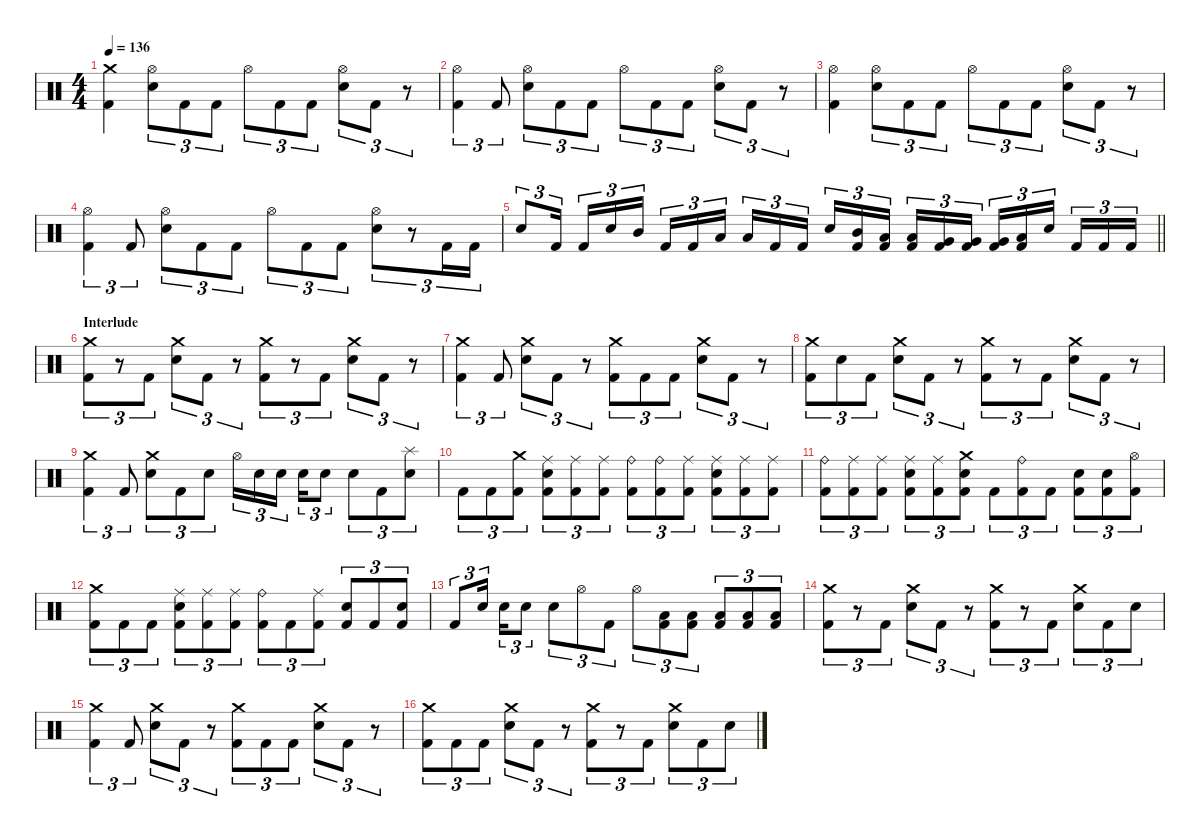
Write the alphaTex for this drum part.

\defaultSystemsLayout 4
\hideDynamics
\bracketExtendMode nobrackets
\singleTrackTrackNamePolicy hidden
\multiTrackTrackNamePolicy hidden
\firstSystemTrackNameMode fullname
\firstSystemTrackNameOrientation horizontal
\otherSystemsTrackNameOrientation horizontal
\track ("Drums" "drm.") {instrument percussion}
\staff {score}
\articulation defaults
\ts (4 4)
\tempo 136
\clef neutral
\ks c
("Crash medium (hit)" "Kick (hit) 2").4{dy f beam Down} ("Hi-Hat (open)" "Snare (hit) 2").8{tu (3 2) beam Down} "Kick (hit) 2".8{tu (3 2) beam Down} "Kick (hit) 2".8{tu (3 2) beam Down} "Hi-Hat (open)".8{tu (3 2) beam Down} "Kick (hit) 2".8{tu (3 2) beam Down} "Kick (hit) 2".8{tu (3 2) beam Down} ("Hi-Hat (open)" "Snare (hit) 2").8{tu (3 2) beam Down} "Kick (hit) 2".8{tu (3 2) beam Down} r.8{tu (3 2) beam Down} |
("Hi-Hat (open)" "Kick (hit) 2").4{tu (3 2) beam Down} "Kick (hit) 2".8{tu (3 2) beam Up} ("Hi-Hat (open)" "Snare (hit) 2").8{tu (3 2) beam Down} "Kick (hit) 2".8{tu (3 2) beam Down} "Kick (hit) 2".8{tu (3 2) beam Down} "Hi-Hat (open)".8{tu (3 2) beam Down} "Kick (hit) 2".8{tu (3 2) beam Down} "Kick (hit) 2".8{tu (3 2) beam Down} ("Hi-Hat (open)" "Snare (hit) 2").8{tu (3 2) beam Down} "Kick (hit) 2".8{tu (3 2) beam Down} r.8{tu (3 2) beam Down} |
("Hi-Hat (open)" "Kick (hit) 2").4{beam Down} ("Hi-Hat (open)" "Snare (hit) 2").8{tu (3 2) beam Down} "Kick (hit) 2".8{tu (3 2) beam Down} "Kick (hit) 2".8{tu (3 2) beam Down} "Hi-Hat (open)".8{tu (3 2) beam Down} "Kick (hit) 2".8{tu (3 2) beam Down} "Kick (hit) 2".8{tu (3 2) beam Down} ("Hi-Hat (open)" "Snare (hit) 2").8{tu (3 2) beam Down} "Kick (hit) 2".8{tu (3 2) beam Down} r.8{tu (3 2) beam Down} |
("Hi-Hat (open)" "Kick (hit) 2").4{tu (3 2) beam Down} "Kick (hit) 2".8{tu (3 2) beam Up} ("Hi-Hat (open)" "Snare (hit) 2").8{tu (3 2) beam Down} "Kick (hit) 2".8{tu (3 2) beam Down} "Kick (hit) 2".8{tu (3 2) beam Down} "Hi-Hat (open)".8{tu (3 2) beam Down} "Kick (hit) 2".8{tu (3 2) beam Down} "Kick (hit) 2".8{tu (3 2) beam Down} ("Hi-Hat (open)" "Snare (hit) 2").8{tu (3 2) beam Down} r.8{tu (3 2) beam Down} "Kick (hit) 2".16{tu (3 2) beam Down} "Kick (hit) 2".16{tu (3 2) beam Down} |
\barLineRight lightlight "Snare (hit) 2".8{tu (3 2) beam Up} "Kick (hit) 2".16{tu (3 2) beam Up} "Kick (hit) 2".16{tu (3 2) beam Up} "Snare (hit) 2".16{tu (3 2) beam Up} "Mid Tom (hit)".16{tu (3 2) beam Up} "Kick (hit) 2".16{tu (3 2) beam Up} "Kick (hit) 2".16{tu (3 2) beam Up} "Low Tom (hit)".16{tu (3 2) beam Up} "Low Tom (hit)".16{tu (3 2) beam Up} "Kick (hit) 2".16{tu (3 2) beam Up} "Kick (hit) 2".16{tu (3 2) beam Up} "Snare (hit) 2".16{tu (3 2) beam Up}
("Mid Tom (hit)" "Kick (hit) 2").16{tu (3 2) beam Up} ("Low Tom (hit)" "Kick (hit) 2").16{tu (3 2) beam Up} ("Low Tom (hit)" "Kick (hit) 2").16{tu (3 2) beam Up} ("Very Low Tom (hit)" "Kick (hit) 2").16{tu (3 2) beam Up} ("Very Low Tom (hit)" "Kick (hit) 2").16{tu (3 2) beam Up} ("Very Low Tom (hit)" "Kick (hit) 2").16{tu (3 2) beam Up} ("Low Floor Tom (hit)" "Kick (hit) 2").16{tu (3 2) beam Up} "Snare (hit) 2".16{tu (3 2) beam Up} "Kick (hit) 2".16{tu (3 2) beam Up} "Kick (hit) 2".16{tu (3 2) beam Up} "Kick (hit) 2".16{tu (3 2) beam Up} |
\section ("" "Interlude")
("Crash medium (hit)" "Kick (hit) 2").8{tu (3 2) beam Down} r.8{tu (3 2) beam Down} "Kick (hit) 2".8{tu (3 2) beam Down} ("Crash medium (hit)" "Snare (hit) 2").8{tu (3 2) beam Down} "Kick (hit) 2".8{tu (3 2) beam Down} r.8{tu (3 2) beam Down} ("Crash medium (hit)" "Kick (hit) 2").8{tu (3 2) beam Down} r.8{tu (3 2) beam Down} "Kick (hit) 2".8{tu (3 2) beam Down} ("Crash medium (hit)" "Snare (hit) 2").8{tu (3 2) beam Down} "Kick (hit) 2".8{tu (3 2) beam Down} r.8{tu (3 2) beam Down} |
("Crash medium (hit)" "Kick (hit) 2").4{tu (3 2) beam Down} "Kick (hit) 2".8{tu (3 2) beam Up} ("Crash medium (hit)" "Snare (hit) 2").8{tu (3 2) beam Down} "Kick (hit) 2".8{tu (3 2) beam Down} r.8{tu (3 2) beam Down} ("Crash medium (hit)" "Kick (hit) 2").8{tu (3 2) beam Down} "Kick (hit) 2".8{tu (3 2) beam Down} "Kick (hit) 2".8{tu (3 2) beam Down} ("Crash medium (hit)" "Snare (hit) 2").8{tu (3 2) beam Down} "Kick (hit) 2".8{tu (3 2) beam Down} r.8{tu (3 2) beam Down} |
("Crash medium (hit)" "Kick (hit) 2").8{tu (3 2) beam Down} "Snare (hit) 2".8{tu (3 2) dy mf beam Down} "Kick (hit) 2".8{tu (3 2) dy f beam Down} ("Crash medium (hit)" "Snare (hit) 2").8{tu (3 2) beam Down} "Kick (hit) 2".8{tu (3 2) beam Down} r.8{tu (3 2) beam Down} ("Crash medium (hit)" "Kick (hit) 2").8{tu (3 2) beam Down} r.8{tu (3 2) beam Down} "Kick (hit) 2".8{tu (3 2) beam Down} ("Crash medium (hit)" "Snare (hit) 2").8{tu (3 2) beam Down} "Kick (hit) 2".8{tu (3 2) beam Down} r.8{tu (3 2) beam Down} |
("Crash medium (hit)" "Kick (hit) 2").4{tu (3 2) beam Down} "Kick (hit) 2".8{tu (3 2) beam Up} ("Crash medium (hit)" "Snare (hit) 2").8{tu (3 2) beam Down} "Kick (hit) 2".8{tu (3 2) beam Down} "Snare (hit) 2".8{tu (3 2) beam Down} "Hi-Hat (open)".16{tu (3 2) beam Down} "Snare (hit) 2".16{tu (3 2) dy mp beam Down} "Snare (hit) 2".16{tu (3 2) dy mf beam Down} "Snare (hit) 2".16{tu (3 2) dy f beam Down} "Snare (hit) 2".8{tu (3 2) beam Down} "Snare (hit) 2".8{tu (3 2) beam Down} "Kick (hit) 2".8{tu (3 2) beam Down} ("Splash (hit)" "Snare (hit) 2").8{tu (3 2) beam Down} |
"Kick (hit) 2".8{tu (3 2) beam Down} "Kick (hit) 2".8{tu (3 2) beam Down} ("Crash medium (hit)" "Kick (hit) 2").8{tu (3 2) beam Down} ("Ride (middle)" "Snare (hit) 2" "Kick (hit) 2").8{tu (3 2) beam Down} ("Ride (middle)" "Kick (hit) 2").8{tu (3 2) beam Down} ("Ride (middle)" "Kick (hit) 2").8{tu (3 2) beam Down} ("Ride (bell)" "Kick (hit) 2").8{tu (3 2) beam Down} ("Ride (bell)" "Kick (hit) 2").8{tu (3 2) beam Down} ("Ride (middle)" "Kick (hit) 2").8{tu (3 2) beam Down} ("Ride (middle)" "Snare (hit) 2" "Kick (hit) 2").8{tu (3 2) beam Down} ("Ride (middle)" "Kick (hit) 2").8{tu (3 2) beam Down} ("Ride (middle)" "Kick (hit) 2").8{tu (3 2) beam Down} |
("Ride (bell)" "Kick (hit) 2").8{tu (3 2) beam Down} ("Ride (middle)" "Kick (hit) 2").8{tu (3 2) beam Down} ("Ride (middle)" "Kick (hit) 2").8{tu (3 2) beam Down} ("Ride (middle)" "Snare (hit) 2" "Kick (hit) 2").8{tu (3 2) beam Down} ("Ride (middle)" "Kick (hit) 2").8{tu (3 2) beam Down} ("Crash medium (hit)" "Snare (hit) 2" "Kick (hit) 2").8{tu (3 2) beam Down} "Kick (hit) 2".8{tu (3 2) beam Down} ("Ride (bell)" "Kick (hit) 2").8{tu (3 2) beam Down} "Kick (hit) 2".8{tu (3 2) beam Down} ("Snare (hit) 2" "Kick (hit) 2").8{tu (3 2) beam Down} ("Snare (hit) 2" "Kick (hit) 2").8{tu (3 2) beam Down} ("Hi-Hat (open)" "Kick (hit) 2").8{tu (3 2) beam Down} |
("Crash medium (hit)" "Kick (hit) 2").8{tu (3 2) beam Down} "Kick (hit) 2".8{tu (3 2) beam Down} "Kick (hit) 2".8{tu (3 2) beam Down} ("Ride (middle)" "Snare (hit) 2" "Kick (hit) 2").8{tu (3 2) beam Down} ("Ride (middle)" "Kick (hit) 2").8{tu (3 2) beam Down} ("Ride (middle)" "Kick (hit) 2").8{tu (3 2) beam Down} ("Ride (bell)" "Kick (hit) 2").8{tu (3 2) beam Down} "Kick (hit) 2".8{tu (3 2) beam Down} ("Ride (middle)" "Kick (hit) 2").8{tu (3 2) beam Down} ("Snare (hit) 2" "Kick (hit) 2").8{tu (3 2) beam Up} "Kick (hit) 2".8{tu (3 2) beam Up} ("Snare (hit) 2" "Kick (hit) 2").8{tu (3 2) beam Up} |
"Kick (hit) 2".8{tu (3 2) beam Up} "Snare (hit) 2".16{tu (3 2) dy mp beam Up} "Snare (hit) 2".16{tu (3 2) dy mf beam Down} "Snare (hit) 2".8{tu (3 2) dy f beam Down} "Snare (hit) 2".8{tu (3 2) beam Down} "Hi-Hat (open)".8{tu (3 2) beam Down} "Kick (hit) 2".8{tu (3 2) beam Down} "Hi-Hat (open)".8{tu (3 2) beam Down} ("Low Tom (hit)" "Kick (hit) 2").8{tu (3 2) beam Down} ("Low Tom (hit)" "Kick (hit) 2").8{tu (3 2) beam Down} ("Low Floor Tom (hit)" "Kick (hit) 2").8{tu (3 2) beam Up} ("Low Floor Tom (hit)" "Kick (hit) 2").8{tu (3 2) beam Up} ("Low Floor Tom (hit)" "Kick (hit) 2").8{tu (3 2) beam Up} |
("Crash medium (hit)" "Kick (hit) 2").8{tu (3 2) beam Down} r.8{tu (3 2) beam Down} "Kick (hit) 2".8{tu (3 2) beam Down} ("Crash medium (hit)" "Snare (hit) 2").8{tu (3 2) beam Down} "Kick (hit) 2".8{tu (3 2) beam Down} r.8{tu (3 2) beam Down} ("Crash medium (hit)" "Kick (hit) 2").8{tu (3 2) beam Down} r.8{tu (3 2) beam Down} "Kick (hit) 2".8{tu (3 2) beam Down} ("Crash medium (hit)" "Snare (hit) 2").8{tu (3 2) beam Down} "Kick (hit) 2".8{tu (3 2) beam Down} "Snare (hit) 2".8{tu (3 2) beam Down} |
("Crash medium (hit)" "Kick (hit) 2").4{tu (3 2) beam Down} "Kick (hit) 2".8{tu (3 2) beam Up} ("Crash medium (hit)" "Snare (hit) 2").8{tu (3 2) beam Down} "Kick (hit) 2".8{tu (3 2) beam Down} r.8{tu (3 2) beam Down} ("Crash medium (hit)" "Kick (hit) 2").8{tu (3 2) beam Down} "Kick (hit) 2".8{tu (3 2) beam Down} "Kick (hit) 2".8{tu (3 2) beam Down} ("Crash medium (hit)" "Snare (hit) 2").8{tu (3 2) beam Down} "Kick (hit) 2".8{tu (3 2) beam Down} r.8{tu (3 2) beam Down} |
("Crash medium (hit)" "Kick (hit) 2").8{tu (3 2) beam Down} "Kick (hit) 2".8{tu (3 2) beam Down} "Kick (hit) 2".8{tu (3 2) beam Down} ("Crash medium (hit)" "Snare (hit) 2").8{tu (3 2) beam Down} "Kick (hit) 2".8{tu (3 2) beam Down} r.8{tu (3 2) beam Down} ("Crash medium (hit)" "Kick (hit) 2").8{tu (3 2) beam Down} r.8{tu (3 2) beam Down} "Kick (hit) 2".8{tu (3 2) beam Down} ("Crash medium (hit)" "Snare (hit) 2").8{tu (3 2) beam Down} "Kick (hit) 2".8{tu (3 2) beam Down} "Snare (hit) 2".8{tu (3 2) beam Down}
